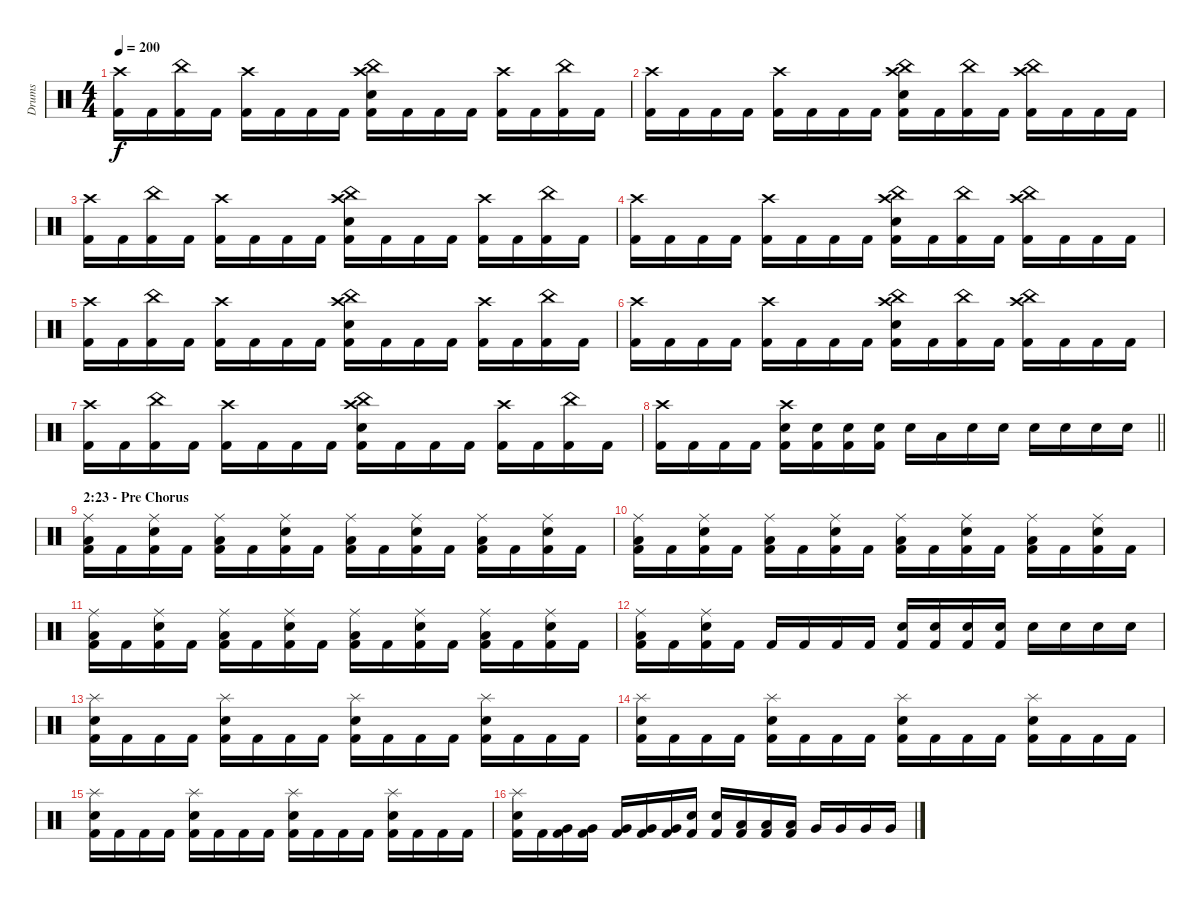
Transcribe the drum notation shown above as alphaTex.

\track ("Drums" "Drums") {instrument percussion}
\staff {score}
\articulation defaults
\ts (4 4)
\tempo 200
\clef neutral
\ks c
("Crash high (hit)" "Kick (hit) 2").16{dy f} "Kick (hit) 2".16 ("China (hit)" "Kick (hit) 2").16 "Kick (hit) 2".16 ("Crash high (hit)" "Kick (hit) 2").16 "Kick (hit) 2".16 "Kick (hit) 2".16 "Kick (hit) 2".16 ("Crash high (hit)" "China (hit)" "Electric Snare (hit)" "Kick (hit) 2").16 "Kick (hit) 2".16 "Kick (hit) 2".16 "Kick (hit) 2".16 ("Crash high (hit)" "Kick (hit) 2").16 "Kick (hit) 2".16 ("China (hit)" "Kick (hit) 2").16 "Kick (hit) 2".16 |
("Crash high (hit)" "Kick (hit) 2").16 "Kick (hit) 2".16 "Kick (hit) 2".16 "Kick (hit) 2".16 ("Crash high (hit)" "Kick (hit) 2").16 "Kick (hit) 2".16 "Kick (hit) 2".16 "Kick (hit) 2".16 ("Crash high (hit)" "China (hit)" "Electric Snare (hit)" "Kick (hit) 2").16 "Kick (hit) 2".16 ("China (hit)" "Kick (hit) 2").16 "Kick (hit) 2".16 ("Crash high (hit)" "China (hit)" "Kick (hit) 2").16 "Kick (hit) 2".16 "Kick (hit) 2".16 "Kick (hit) 2".16 |
("Crash high (hit)" "Kick (hit) 2").16 "Kick (hit) 2".16 ("China (hit)" "Kick (hit) 2").16 "Kick (hit) 2".16 ("Crash high (hit)" "Kick (hit) 2").16 "Kick (hit) 2".16 "Kick (hit) 2".16 "Kick (hit) 2".16 ("Crash high (hit)" "China (hit)" "Electric Snare (hit)" "Kick (hit) 2").16 "Kick (hit) 2".16 "Kick (hit) 2".16 "Kick (hit) 2".16 ("Crash high (hit)" "Kick (hit) 2").16 "Kick (hit) 2".16 ("China (hit)" "Kick (hit) 2").16 "Kick (hit) 2".16 |
("Crash high (hit)" "Kick (hit) 2").16 "Kick (hit) 2".16 "Kick (hit) 2".16 "Kick (hit) 2".16 ("Crash high (hit)" "Kick (hit) 2").16 "Kick (hit) 2".16 "Kick (hit) 2".16 "Kick (hit) 2".16 ("Crash high (hit)" "China (hit)" "Electric Snare (hit)" "Kick (hit) 2").16 "Kick (hit) 2".16 ("China (hit)" "Kick (hit) 2").16 "Kick (hit) 2".16 ("Crash high (hit)" "China (hit)" "Kick (hit) 2").16 "Kick (hit) 2".16 "Kick (hit) 2".16 "Kick (hit) 2".16 |
("Crash high (hit)" "Kick (hit) 2").16 "Kick (hit) 2".16 ("China (hit)" "Kick (hit) 2").16 "Kick (hit) 2".16 ("Crash high (hit)" "Kick (hit) 2").16 "Kick (hit) 2".16 "Kick (hit) 2".16 "Kick (hit) 2".16 ("Crash high (hit)" "China (hit)" "Electric Snare (hit)" "Kick (hit) 2").16 "Kick (hit) 2".16 "Kick (hit) 2".16 "Kick (hit) 2".16 ("Crash high (hit)" "Kick (hit) 2").16 "Kick (hit) 2".16 ("China (hit)" "Kick (hit) 2").16 "Kick (hit) 2".16 |
("Crash high (hit)" "Kick (hit) 2").16 "Kick (hit) 2".16 "Kick (hit) 2".16 "Kick (hit) 2".16 ("Crash high (hit)" "Kick (hit) 2").16 "Kick (hit) 2".16 "Kick (hit) 2".16 "Kick (hit) 2".16 ("Crash high (hit)" "China (hit)" "Electric Snare (hit)" "Kick (hit) 2").16 "Kick (hit) 2".16 ("China (hit)" "Kick (hit) 2").16 "Kick (hit) 2".16 ("Crash high (hit)" "China (hit)" "Kick (hit) 2").16 "Kick (hit) 2".16 "Kick (hit) 2".16 "Kick (hit) 2".16 |
("Crash high (hit)" "Kick (hit) 2").16 "Kick (hit) 2".16 ("China (hit)" "Kick (hit) 2").16 "Kick (hit) 2".16 ("Crash high (hit)" "Kick (hit) 2").16 "Kick (hit) 2".16 "Kick (hit) 2".16 "Kick (hit) 2".16 ("Crash high (hit)" "China (hit)" "Electric Snare (hit)" "Kick (hit) 2").16 "Kick (hit) 2".16 "Kick (hit) 2".16 "Kick (hit) 2".16 ("Crash high (hit)" "Kick (hit) 2").16 "Kick (hit) 2".16 ("China (hit)" "Kick (hit) 2").16 "Kick (hit) 2".16 |
\barLineRight lightlight
("Crash high (hit)" "Kick (hit) 2").16 "Kick (hit) 2".16 "Kick (hit) 2".16 "Kick (hit) 2".16 ("Crash high (hit)" "Electric Snare (hit)" "Kick (hit) 2").16 ("Electric Snare (hit)" "Kick (hit) 2").16 ("Electric Snare (hit)" "Kick (hit) 2").16 ("Electric Snare (hit)" "Kick (hit) 2").16 "Electric Snare (hit)".16 "Low Floor Tom (hit)".16 "Electric Snare (hit)".16 "Electric Snare (hit)".16 "Electric Snare (hit)".16 "Electric Snare (hit)".16 "Electric Snare (hit)".16 "Electric Snare (hit)".16 |
\section ("" "2:23 - Pre Chorus")
("Ride (middle)" "Low Floor Tom (hit)" "Kick (hit) 2").16 "Kick (hit) 2".16 ("Ride (middle)" "Electric Snare (hit)" "Kick (hit) 2").16 "Kick (hit) 2".16 ("Ride (middle)" "Low Floor Tom (hit)" "Kick (hit) 2").16 "Kick (hit) 2".16 ("Ride (middle)" "Electric Snare (hit)" "Kick (hit) 2").16 "Kick (hit) 2".16 ("Ride (middle)" "Low Floor Tom (hit)" "Kick (hit) 2").16 "Kick (hit) 2".16 ("Ride (middle)" "Electric Snare (hit)" "Kick (hit) 2").16 "Kick (hit) 2".16 ("Ride (middle)" "Low Floor Tom (hit)" "Kick (hit) 2").16 "Kick (hit) 2".16 ("Ride (middle)" "Electric Snare (hit)" "Kick (hit) 2").16 "Kick (hit) 2".16 |
("Ride (middle)" "Low Floor Tom (hit)" "Kick (hit) 2").16 "Kick (hit) 2".16 ("Ride (middle)" "Electric Snare (hit)" "Kick (hit) 2").16 "Kick (hit) 2".16 ("Ride (middle)" "Low Floor Tom (hit)" "Kick (hit) 2").16 "Kick (hit) 2".16 ("Ride (middle)" "Electric Snare (hit)" "Kick (hit) 2").16 "Kick (hit) 2".16 ("Ride (middle)" "Low Floor Tom (hit)" "Kick (hit) 2").16 "Kick (hit) 2".16 ("Ride (middle)" "Electric Snare (hit)" "Kick (hit) 2").16 "Kick (hit) 2".16 ("Ride (middle)" "Low Floor Tom (hit)" "Kick (hit) 2").16 "Kick (hit) 2".16 ("Ride (middle)" "Electric Snare (hit)" "Kick (hit) 2").16 "Kick (hit) 2".16 |
("Ride (middle)" "Low Floor Tom (hit)" "Kick (hit) 2").16 "Kick (hit) 2".16 ("Ride (middle)" "Electric Snare (hit)" "Kick (hit) 2").16 "Kick (hit) 2".16 ("Ride (middle)" "Low Floor Tom (hit)" "Kick (hit) 2").16 "Kick (hit) 2".16 ("Ride (middle)" "Electric Snare (hit)" "Kick (hit) 2").16 "Kick (hit) 2".16 ("Ride (middle)" "Low Floor Tom (hit)" "Kick (hit) 2").16 "Kick (hit) 2".16 ("Ride (middle)" "Electric Snare (hit)" "Kick (hit) 2").16 "Kick (hit) 2".16 ("Ride (middle)" "Low Floor Tom (hit)" "Kick (hit) 2").16 "Kick (hit) 2".16 ("Ride (middle)" "Electric Snare (hit)" "Kick (hit) 2").16 "Kick (hit) 2".16 |
("Ride (middle)" "Low Floor Tom (hit)" "Kick (hit) 2").16 "Kick (hit) 2".16 ("Ride (middle)" "Electric Snare (hit)" "Kick (hit) 2").16 "Kick (hit) 2".16 "Kick (hit) 2".16 "Kick (hit) 2".16 "Kick (hit) 2".16 "Kick (hit) 2".16 ("Electric Snare (hit)" "Kick (hit) 2").16 ("Electric Snare (hit)" "Kick (hit) 2").16 ("Electric Snare (hit)" "Kick (hit) 2").16 ("Electric Snare (hit)" "Kick (hit) 2").16 "Electric Snare (hit)".16 "Electric Snare (hit)".16 "Electric Snare (hit)".16 "Electric Snare (hit)".16 |
("Splash (hit)" "Electric Snare (hit)" "Kick (hit) 2").16 "Kick (hit) 2".16 "Kick (hit) 2".16 "Kick (hit) 2".16 ("Splash (hit)" "Electric Snare (hit)" "Kick (hit) 2").16 "Kick (hit) 2".16 "Kick (hit) 2".16 "Kick (hit) 2".16 ("Splash (hit)" "Electric Snare (hit)" "Kick (hit) 2").16 "Kick (hit) 2".16 "Kick (hit) 2".16 "Kick (hit) 2".16 ("Splash (hit)" "Electric Snare (hit)" "Kick (hit) 2").16 "Kick (hit) 2".16 "Kick (hit) 2".16 "Kick (hit) 2".16 |
("Splash (hit)" "Electric Snare (hit)" "Kick (hit) 2").16 "Kick (hit) 2".16 "Kick (hit) 2".16 "Kick (hit) 2".16 ("Splash (hit)" "Electric Snare (hit)" "Kick (hit) 2").16 "Kick (hit) 2".16 "Kick (hit) 2".16 "Kick (hit) 2".16 ("Splash (hit)" "Electric Snare (hit)" "Kick (hit) 2").16 "Kick (hit) 2".16 "Kick (hit) 2".16 "Kick (hit) 2".16 ("Splash (hit)" "Electric Snare (hit)" "Kick (hit) 2").16 "Kick (hit) 2".16 "Kick (hit) 2".16 "Kick (hit) 2".16 |
("Splash (hit)" "Electric Snare (hit)" "Kick (hit) 2").16 "Kick (hit) 2".16 "Kick (hit) 2".16 "Kick (hit) 2".16 ("Splash (hit)" "Electric Snare (hit)" "Kick (hit) 2").16 "Kick (hit) 2".16 "Kick (hit) 2".16 "Kick (hit) 2".16 ("Splash (hit)" "Electric Snare (hit)" "Kick (hit) 2").16 "Kick (hit) 2".16 "Kick (hit) 2".16 "Kick (hit) 2".16 ("Splash (hit)" "Electric Snare (hit)" "Kick (hit) 2").16 "Kick (hit) 2".16 "Kick (hit) 2".16 "Kick (hit) 2".16 |
("Splash (hit)" "Electric Snare (hit)" "Kick (hit) 2").16 "Kick (hit) 2".16 ("Very Low Tom (hit)" "Kick (hit) 2").16 ("Very Low Tom (hit)" "Kick (hit) 2").16 ("Very Low Tom (hit)" "Kick (hit) 2").16 ("Very Low Tom (hit)" "Kick (hit) 2").16 ("Very Low Tom (hit)" "Kick (hit) 2").16 ("Electric Snare (hit)" "Kick (hit) 2").16 ("Electric Snare (hit)" "Kick (hit) 2").16 ("Low Tom (hit)" "Kick (hit) 2").16 ("Low Tom (hit)" "Kick (hit) 2").16 ("Low Tom (hit)" "Kick (hit) 2").16 "Very Low Tom (hit)".16 "Very Low Tom (hit)".16 "Very Low Tom (hit)".16 "Very Low Tom (hit)".16
